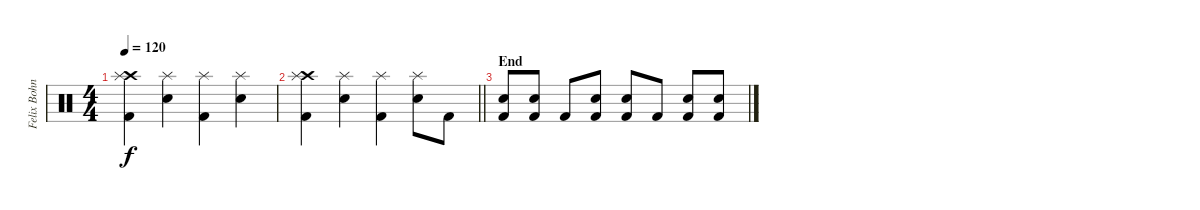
\track ("Felix Bohnke (Drums)" "Felix Bohn") {instrument percussion}
\staff {score}
\articulation defaults
\ts (4 4)
\tempo 120
\clef neutral
\ks c
("Crash high (hit)" "Splash (hit)" "Kick (hit) 2").4{dy f} ("Splash (hit)" "Snare (hit) 2").4 ("Splash (hit)" "Kick (hit) 2").4 ("Splash (hit)" "Snare (hit) 2").4 |
\barLineRight lightlight
("Crash high (hit)" "Splash (hit)" "Kick (hit) 2").4 ("Splash (hit)" "Snare (hit) 2").4 ("Splash (hit)" "Kick (hit) 2").4 ("Splash (hit)" "Snare (hit) 2").8 "Kick (hit) 2".8 |
\section ("" "End")
("Snare (hit) 2" "Kick (hit) 2").8 ("Snare (hit) 2" "Kick (hit) 2").8 "Kick (hit) 2".8 ("Snare (hit) 2" "Kick (hit) 2").8 ("Snare (hit) 2" "Kick (hit) 2").8 "Kick (hit) 2".8 ("Snare (hit) 2" "Kick (hit) 2").8 ("Snare (hit) 2" "Kick (hit) 2").8
